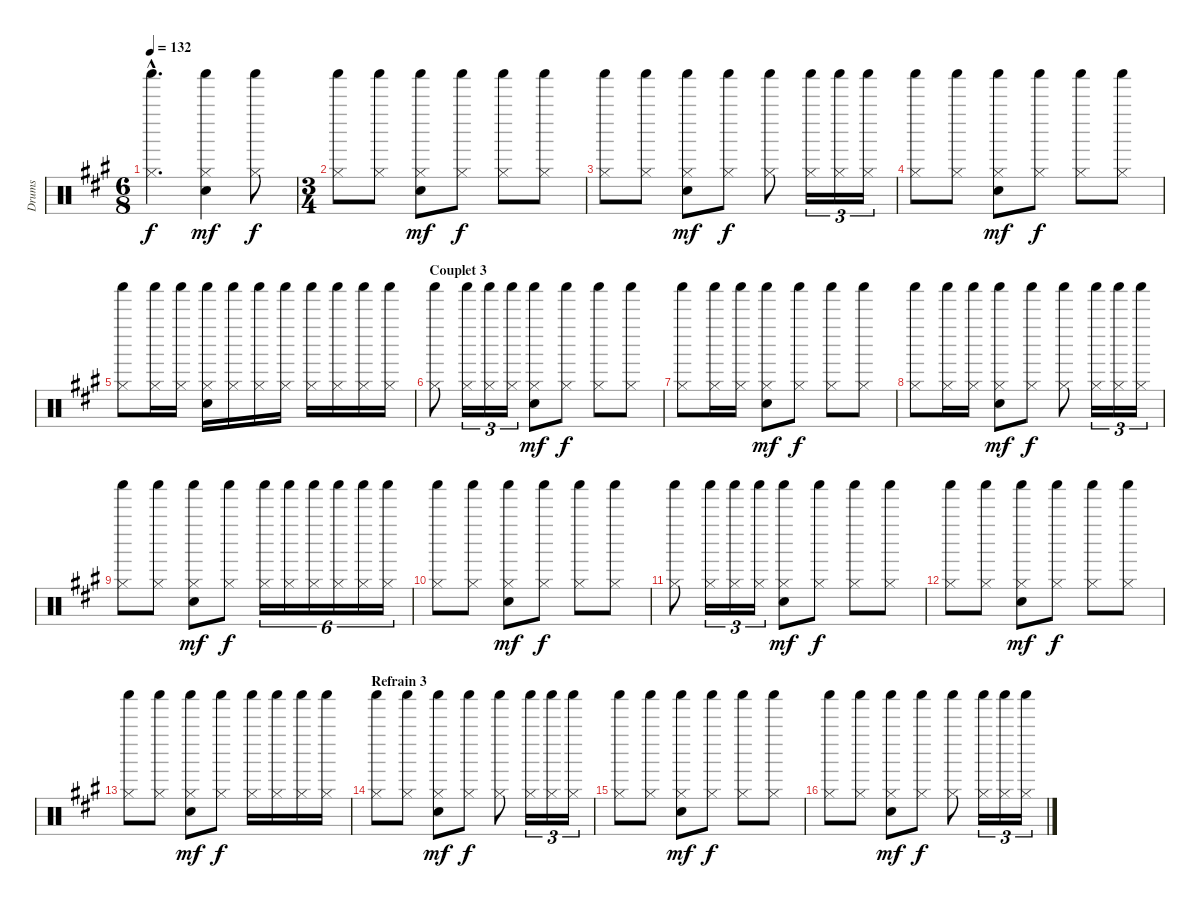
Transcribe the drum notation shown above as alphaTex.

\track ("Drums" "Drums") {instrument percussion}
\staff {score}
\articulation defaults
\ts (6 8)
\tempo 132
\clef neutral
\ks a
("Shaker (hit)"{hac} "Hi-Hat (closed)"{hac}).4{d dy f} ("Shaker (hit)" "Hi-Hat (closed)" "Electric Snare (hit)").4{dy mf} ("Shaker (hit)" "Hi-Hat (closed)").8{dy f} |
\ts (3 4)
("Shaker (hit)" "Hi-Hat (closed)").8 ("Shaker (hit)" "Hi-Hat (closed)").8 ("Shaker (hit)" "Hi-Hat (closed)" "Electric Snare (hit)").8{dy mf} ("Shaker (hit)" "Hi-Hat (closed)").8{dy f} ("Shaker (hit)" "Hi-Hat (closed)").8 ("Shaker (hit)" "Hi-Hat (closed)").8 |
("Shaker (hit)" "Hi-Hat (closed)").8 ("Shaker (hit)" "Hi-Hat (closed)").8 ("Shaker (hit)" "Hi-Hat (closed)" "Electric Snare (hit)").8{dy mf} ("Shaker (hit)" "Hi-Hat (closed)").8{dy f} ("Shaker (hit)" "Hi-Hat (closed)").8 ("Shaker (hit)" "Hi-Hat (closed)").16{tu (3 2)} ("Shaker (hit)" "Hi-Hat (closed)").16{tu (3 2)} ("Shaker (hit)" "Hi-Hat (closed)").16{tu (3 2)} |
("Shaker (hit)" "Hi-Hat (closed)").8 ("Shaker (hit)" "Hi-Hat (closed)").8 ("Shaker (hit)" "Hi-Hat (closed)" "Electric Snare (hit)").8{dy mf} ("Shaker (hit)" "Hi-Hat (closed)").8{dy f} ("Shaker (hit)" "Hi-Hat (closed)").8 ("Shaker (hit)" "Hi-Hat (closed)").8 |
("Shaker (hit)" "Hi-Hat (closed)").8 ("Shaker (hit)" "Hi-Hat (closed)").16 ("Shaker (hit)" "Hi-Hat (closed)").16 ("Shaker (hit)" "Hi-Hat (closed)" "Electric Snare (hit)").16 ("Shaker (hit)" "Hi-Hat (closed)").16 ("Shaker (hit)" "Hi-Hat (closed)").16 ("Shaker (hit)" "Hi-Hat (closed)").16 ("Shaker (hit)" "Hi-Hat (closed)").16 ("Shaker (hit)" "Hi-Hat (closed)").16 ("Shaker (hit)" "Hi-Hat (closed)").16 ("Shaker (hit)" "Hi-Hat (closed)").16 |
\section ("" "Couplet 3")
("Shaker (hit)" "Hi-Hat (closed)").8 ("Shaker (hit)" "Hi-Hat (closed)").16{tu (3 2)} ("Shaker (hit)" "Hi-Hat (closed)").16{tu (3 2)} ("Shaker (hit)" "Hi-Hat (closed)").16{tu (3 2)} ("Shaker (hit)" "Hi-Hat (closed)" "Electric Snare (hit)").8{dy mf} ("Shaker (hit)" "Hi-Hat (closed)").8{dy f} ("Shaker (hit)" "Hi-Hat (closed)").8 ("Shaker (hit)" "Hi-Hat (closed)").8 |
("Shaker (hit)" "Hi-Hat (closed)").8 ("Shaker (hit)" "Hi-Hat (closed)").16 ("Shaker (hit)" "Hi-Hat (closed)").16 ("Shaker (hit)" "Hi-Hat (closed)" "Electric Snare (hit)").8{dy mf} ("Shaker (hit)" "Hi-Hat (closed)").8{dy f} ("Shaker (hit)" "Hi-Hat (closed)").8 ("Shaker (hit)" "Hi-Hat (closed)").8 |
("Shaker (hit)" "Hi-Hat (closed)").8 ("Shaker (hit)" "Hi-Hat (closed)").16 ("Shaker (hit)" "Hi-Hat (closed)").16 ("Shaker (hit)" "Hi-Hat (closed)" "Electric Snare (hit)").8{dy mf} ("Shaker (hit)" "Hi-Hat (closed)").8{dy f} ("Shaker (hit)" "Hi-Hat (closed)").8 ("Shaker (hit)" "Hi-Hat (closed)").16{tu (3 2)} ("Shaker (hit)" "Hi-Hat (closed)").16{tu (3 2)} ("Shaker (hit)" "Hi-Hat (closed)").16{tu (3 2)} |
("Shaker (hit)" "Hi-Hat (closed)").8 ("Shaker (hit)" "Hi-Hat (closed)").8 ("Shaker (hit)" "Hi-Hat (closed)" "Electric Snare (hit)").8{dy mf} ("Shaker (hit)" "Hi-Hat (closed)").8{dy f} ("Shaker (hit)" "Hi-Hat (closed)").16{tu (6 4)} ("Shaker (hit)" "Hi-Hat (closed)").16{tu (6 4)} ("Shaker (hit)" "Hi-Hat (closed)").16{tu (6 4)} ("Shaker (hit)" "Hi-Hat (closed)").16{tu (6 4)} ("Shaker (hit)" "Hi-Hat (closed)").16{tu (6 4)} ("Shaker (hit)" "Hi-Hat (closed)").16{tu (6 4)} |
("Shaker (hit)" "Hi-Hat (closed)").8 ("Shaker (hit)" "Hi-Hat (closed)").8 ("Shaker (hit)" "Hi-Hat (closed)" "Electric Snare (hit)").8{dy mf} ("Shaker (hit)" "Hi-Hat (closed)").8{dy f} ("Shaker (hit)" "Hi-Hat (closed)").8 ("Shaker (hit)" "Hi-Hat (closed)").8 |
("Shaker (hit)" "Hi-Hat (closed)").8 ("Shaker (hit)" "Hi-Hat (closed)").16{tu (3 2)} ("Shaker (hit)" "Hi-Hat (closed)").16{tu (3 2)} ("Shaker (hit)" "Hi-Hat (closed)").16{tu (3 2)} ("Shaker (hit)" "Hi-Hat (closed)" "Electric Snare (hit)").8{dy mf} ("Shaker (hit)" "Hi-Hat (closed)").8{dy f} ("Shaker (hit)" "Hi-Hat (closed)").8 ("Shaker (hit)" "Hi-Hat (closed)").8 |
("Shaker (hit)" "Hi-Hat (closed)").8 ("Shaker (hit)" "Hi-Hat (closed)").8 ("Shaker (hit)" "Hi-Hat (closed)" "Electric Snare (hit)").8{dy mf} ("Shaker (hit)" "Hi-Hat (closed)").8{dy f} ("Shaker (hit)" "Hi-Hat (closed)").8 ("Shaker (hit)" "Hi-Hat (closed)").8 |
("Shaker (hit)" "Hi-Hat (closed)").8 ("Shaker (hit)" "Hi-Hat (closed)").8 ("Shaker (hit)" "Hi-Hat (closed)" "Electric Snare (hit)").8{dy mf} ("Shaker (hit)" "Hi-Hat (closed)").8{dy f} ("Shaker (hit)" "Hi-Hat (closed)").16 ("Shaker (hit)" "Hi-Hat (closed)").16 ("Shaker (hit)" "Hi-Hat (closed)").16 ("Shaker (hit)" "Hi-Hat (closed)").16 |
\section ("" "Refrain 3")
("Shaker (hit)" "Hi-Hat (closed)").8 ("Shaker (hit)" "Hi-Hat (closed)").8 ("Shaker (hit)" "Hi-Hat (closed)" "Electric Snare (hit)").8{dy mf} ("Shaker (hit)" "Hi-Hat (closed)").8{dy f} ("Shaker (hit)" "Hi-Hat (closed)").8 ("Shaker (hit)" "Hi-Hat (closed)").16{tu (3 2)} ("Shaker (hit)" "Hi-Hat (closed)").16{tu (3 2)} ("Shaker (hit)" "Hi-Hat (closed)").16{tu (3 2)} |
("Shaker (hit)" "Hi-Hat (closed)").8 ("Shaker (hit)" "Hi-Hat (closed)").8 ("Shaker (hit)" "Hi-Hat (closed)" "Electric Snare (hit)").8{dy mf} ("Shaker (hit)" "Hi-Hat (closed)").8{dy f} ("Shaker (hit)" "Hi-Hat (closed)").8 ("Shaker (hit)" "Hi-Hat (closed)").8 |
("Shaker (hit)" "Hi-Hat (closed)").8 ("Shaker (hit)" "Hi-Hat (closed)").8 ("Shaker (hit)" "Hi-Hat (closed)" "Electric Snare (hit)").8{dy mf} ("Shaker (hit)" "Hi-Hat (closed)").8{dy f} ("Shaker (hit)" "Hi-Hat (closed)").8 ("Shaker (hit)" "Hi-Hat (closed)").16{tu (3 2)} ("Shaker (hit)" "Hi-Hat (closed)").16{tu (3 2)} ("Shaker (hit)" "Hi-Hat (closed)").16{tu (3 2)}
